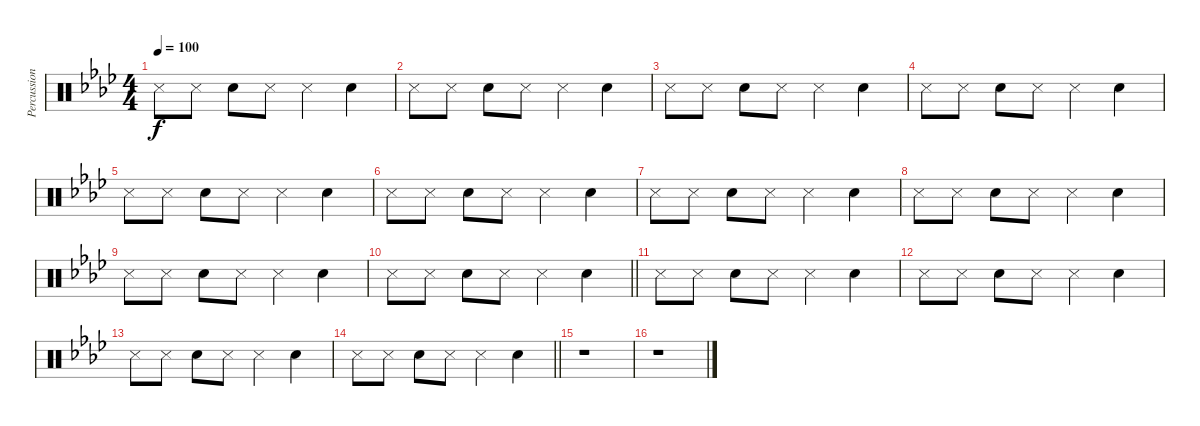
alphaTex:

\track ("Percussions" "Percussion") {instrument percussion}
\staff {score}
\articulation defaults
\ts (4 4)
\tempo 100
\clef neutral
\ks ab "Snare (side stick) 3".8{dy f} "Snare (side stick) 3".8 "Hand Clap (hit)".8 "Snare (side stick) 3".8 "Snare (side stick) 3".4 "Hand Clap (hit)".4
|
"Snare (side stick) 3".8 "Snare (side stick) 3".8 "Hand Clap (hit)".8 "Snare (side stick) 3".8 "Snare (side stick) 3".4 "Hand Clap (hit)".4 |
"Snare (side stick) 3".8 "Snare (side stick) 3".8 "Hand Clap (hit)".8 "Snare (side stick) 3".8 "Snare (side stick) 3".4 "Hand Clap (hit)".4 |
"Snare (side stick) 3".8 "Snare (side stick) 3".8 "Hand Clap (hit)".8 "Snare (side stick) 3".8 "Snare (side stick) 3".4 "Hand Clap (hit)".4 |
"Snare (side stick) 3".8 "Snare (side stick) 3".8 "Hand Clap (hit)".8 "Snare (side stick) 3".8 "Snare (side stick) 3".4 "Hand Clap (hit)".4 |
"Snare (side stick) 3".8 "Snare (side stick) 3".8 "Hand Clap (hit)".8 "Snare (side stick) 3".8 "Snare (side stick) 3".4 "Hand Clap (hit)".4 |
"Snare (side stick) 3".8 "Snare (side stick) 3".8 "Hand Clap (hit)".8 "Snare (side stick) 3".8 "Snare (side stick) 3".4 "Hand Clap (hit)".4 |
"Snare (side stick) 3".8 "Snare (side stick) 3".8 "Hand Clap (hit)".8 "Snare (side stick) 3".8 "Snare (side stick) 3".4 "Hand Clap (hit)".4 |
"Snare (side stick) 3".8 "Snare (side stick) 3".8 "Hand Clap (hit)".8 "Snare (side stick) 3".8 "Snare (side stick) 3".4 "Hand Clap (hit)".4 |
\barLineRight lightlight "Snare (side stick) 3".8 "Snare (side stick) 3".8 "Hand Clap (hit)".8 "Snare (side stick) 3".8 "Snare (side stick) 3".4 "Hand Clap (hit)".4
|
"Snare (side stick) 3".8 "Snare (side stick) 3".8 "Hand Clap (hit)".8 "Snare (side stick) 3".8 "Snare (side stick) 3".4 "Hand Clap (hit)".4 |
"Snare (side stick) 3".8 "Snare (side stick) 3".8 "Hand Clap (hit)".8 "Snare (side stick) 3".8 "Snare (side stick) 3".4 "Hand Clap (hit)".4 |
"Snare (side stick) 3".8 "Snare (side stick) 3".8 "Hand Clap (hit)".8 "Snare (side stick) 3".8 "Snare (side stick) 3".4 "Hand Clap (hit)".4 |
\barLineRight lightlight "Snare (side stick) 3".8 "Snare (side stick) 3".8 "Hand Clap (hit)".8 "Snare (side stick) 3".8 "Snare (side stick) 3".4 "Hand Clap (hit)".4
|
r.1 |
r.1
